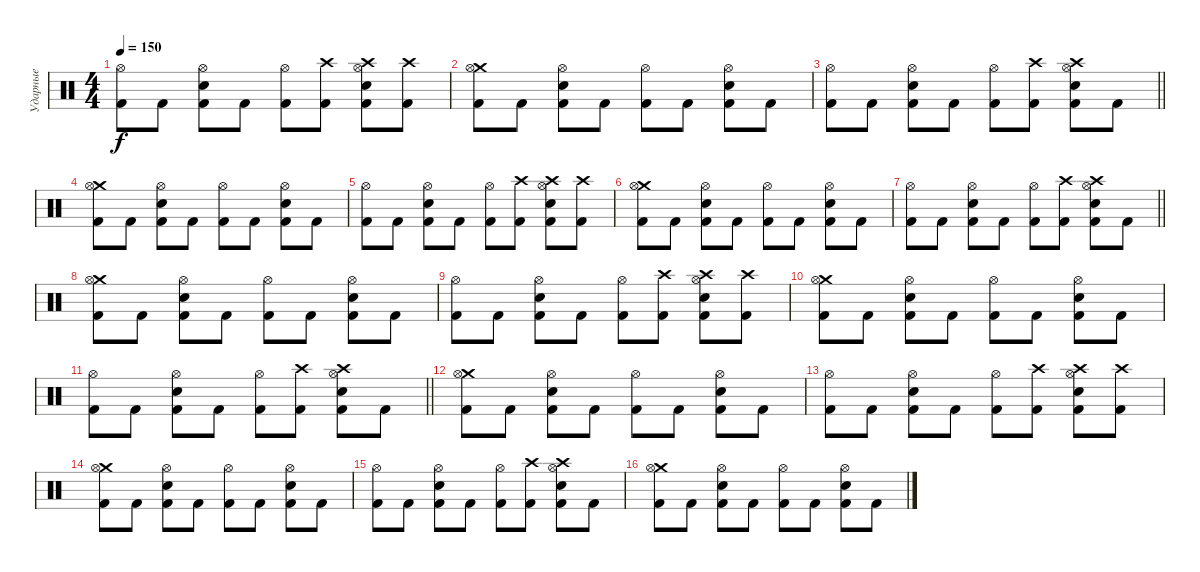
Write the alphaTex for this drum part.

\track ("Ударные" "Ударные") {instrument percussion}
\staff {score}
\articulation defaults
\ts (4 4)
\tempo 150
\clef neutral
\ks c
("Hi-Hat (open)" "Kick (hit) 2").8{dy f} "Kick (hit) 2".8 ("Hi-Hat (open)" "Snare (hit) 2" "Kick (hit) 2").8 "Kick (hit) 2".8 ("Hi-Hat (open)" "Kick (hit) 2").8 ("Crash high (hit)" "Kick (hit) 2").8 ("Crash high (hit)" "Hi-Hat (open)" "Snare (hit) 2" "Kick (hit) 2").8 ("Crash high (hit)" "Kick (hit) 2").8 |
("Crash medium (hit)" "Hi-Hat (open)" "Kick (hit) 2").8 "Kick (hit) 2".8 ("Hi-Hat (open)" "Snare (hit) 2" "Kick (hit) 2").8 "Kick (hit) 2".8 ("Hi-Hat (open)" "Kick (hit) 2").8 "Kick (hit) 2".8 ("Hi-Hat (open)" "Snare (hit) 2" "Kick (hit) 2").8 "Kick (hit) 2".8 |
\barLineRight lightlight
("Hi-Hat (open)" "Kick (hit) 2").8 "Kick (hit) 2".8 ("Hi-Hat (open)" "Snare (hit) 2" "Kick (hit) 2").8 "Kick (hit) 2".8 ("Hi-Hat (open)" "Kick (hit) 2").8 ("Crash high (hit)" "Kick (hit) 2").8 ("Crash high (hit)" "Hi-Hat (open)" "Snare (hit) 2" "Kick (hit) 2").8 "Kick (hit) 2".8 |
("Crash medium (hit)" "Hi-Hat (open)" "Kick (hit) 2").8 "Kick (hit) 2".8 ("Hi-Hat (open)" "Snare (hit) 2" "Kick (hit) 2").8 "Kick (hit) 2".8 ("Hi-Hat (open)" "Kick (hit) 2").8 "Kick (hit) 2".8 ("Hi-Hat (open)" "Snare (hit) 2" "Kick (hit) 2").8 "Kick (hit) 2".8 |
("Hi-Hat (open)" "Kick (hit) 2").8 "Kick (hit) 2".8 ("Hi-Hat (open)" "Snare (hit) 2" "Kick (hit) 2").8 "Kick (hit) 2".8 ("Hi-Hat (open)" "Kick (hit) 2").8 ("Crash high (hit)" "Kick (hit) 2").8 ("Crash high (hit)" "Hi-Hat (open)" "Snare (hit) 2" "Kick (hit) 2").8 ("Crash high (hit)" "Kick (hit) 2").8 |
("Crash medium (hit)" "Hi-Hat (open)" "Kick (hit) 2").8 "Kick (hit) 2".8 ("Hi-Hat (open)" "Snare (hit) 2" "Kick (hit) 2").8 "Kick (hit) 2".8 ("Hi-Hat (open)" "Kick (hit) 2").8 "Kick (hit) 2".8 ("Hi-Hat (open)" "Snare (hit) 2" "Kick (hit) 2").8 "Kick (hit) 2".8 |
\barLineRight lightlight
("Hi-Hat (open)" "Kick (hit) 2").8 "Kick (hit) 2".8 ("Hi-Hat (open)" "Snare (hit) 2" "Kick (hit) 2").8 "Kick (hit) 2".8 ("Hi-Hat (open)" "Kick (hit) 2").8 ("Crash high (hit)" "Kick (hit) 2").8 ("Crash high (hit)" "Hi-Hat (open)" "Snare (hit) 2" "Kick (hit) 2").8 "Kick (hit) 2".8 |
("Crash medium (hit)" "Hi-Hat (open)" "Kick (hit) 2").8 "Kick (hit) 2".8 ("Hi-Hat (open)" "Snare (hit) 2" "Kick (hit) 2").8 "Kick (hit) 2".8 ("Hi-Hat (open)" "Kick (hit) 2").8 "Kick (hit) 2".8 ("Hi-Hat (open)" "Snare (hit) 2" "Kick (hit) 2").8 "Kick (hit) 2".8 |
("Hi-Hat (open)" "Kick (hit) 2").8 "Kick (hit) 2".8 ("Hi-Hat (open)" "Snare (hit) 2" "Kick (hit) 2").8 "Kick (hit) 2".8 ("Hi-Hat (open)" "Kick (hit) 2").8 ("Crash high (hit)" "Kick (hit) 2").8 ("Crash high (hit)" "Hi-Hat (open)" "Snare (hit) 2" "Kick (hit) 2").8 ("Crash high (hit)" "Kick (hit) 2").8 |
("Crash medium (hit)" "Hi-Hat (open)" "Kick (hit) 2").8 "Kick (hit) 2".8 ("Hi-Hat (open)" "Snare (hit) 2" "Kick (hit) 2").8 "Kick (hit) 2".8 ("Hi-Hat (open)" "Kick (hit) 2").8 "Kick (hit) 2".8 ("Hi-Hat (open)" "Snare (hit) 2" "Kick (hit) 2").8 "Kick (hit) 2".8 |
\barLineRight lightlight
("Hi-Hat (open)" "Kick (hit) 2").8 "Kick (hit) 2".8 ("Hi-Hat (open)" "Snare (hit) 2" "Kick (hit) 2").8 "Kick (hit) 2".8 ("Hi-Hat (open)" "Kick (hit) 2").8 ("Crash high (hit)" "Kick (hit) 2").8 ("Crash high (hit)" "Hi-Hat (open)" "Snare (hit) 2" "Kick (hit) 2").8 "Kick (hit) 2".8 |
("Crash medium (hit)" "Hi-Hat (open)" "Kick (hit) 2").8 "Kick (hit) 2".8 ("Hi-Hat (open)" "Snare (hit) 2" "Kick (hit) 2").8 "Kick (hit) 2".8 ("Hi-Hat (open)" "Kick (hit) 2").8 "Kick (hit) 2".8 ("Hi-Hat (open)" "Snare (hit) 2" "Kick (hit) 2").8 "Kick (hit) 2".8 |
("Hi-Hat (open)" "Kick (hit) 2").8 "Kick (hit) 2".8 ("Hi-Hat (open)" "Snare (hit) 2" "Kick (hit) 2").8 "Kick (hit) 2".8 ("Hi-Hat (open)" "Kick (hit) 2").8 ("Crash high (hit)" "Kick (hit) 2").8 ("Crash high (hit)" "Hi-Hat (open)" "Snare (hit) 2" "Kick (hit) 2").8 ("Crash high (hit)" "Kick (hit) 2").8 |
("Crash medium (hit)" "Hi-Hat (open)" "Kick (hit) 2").8 "Kick (hit) 2".8 ("Hi-Hat (open)" "Snare (hit) 2" "Kick (hit) 2").8 "Kick (hit) 2".8 ("Hi-Hat (open)" "Kick (hit) 2").8 "Kick (hit) 2".8 ("Hi-Hat (open)" "Snare (hit) 2" "Kick (hit) 2").8 "Kick (hit) 2".8 |
("Hi-Hat (open)" "Kick (hit) 2").8 "Kick (hit) 2".8 ("Hi-Hat (open)" "Snare (hit) 2" "Kick (hit) 2").8 "Kick (hit) 2".8 ("Hi-Hat (open)" "Kick (hit) 2").8 ("Crash high (hit)" "Kick (hit) 2").8 ("Crash high (hit)" "Hi-Hat (open)" "Snare (hit) 2" "Kick (hit) 2").8 "Kick (hit) 2".8 |
("Crash medium (hit)" "Hi-Hat (open)" "Kick (hit) 2").8 "Kick (hit) 2".8 ("Hi-Hat (open)" "Snare (hit) 2" "Kick (hit) 2").8 "Kick (hit) 2".8 ("Hi-Hat (open)" "Kick (hit) 2").8 "Kick (hit) 2".8 ("Hi-Hat (open)" "Snare (hit) 2" "Kick (hit) 2").8 "Kick (hit) 2".8
